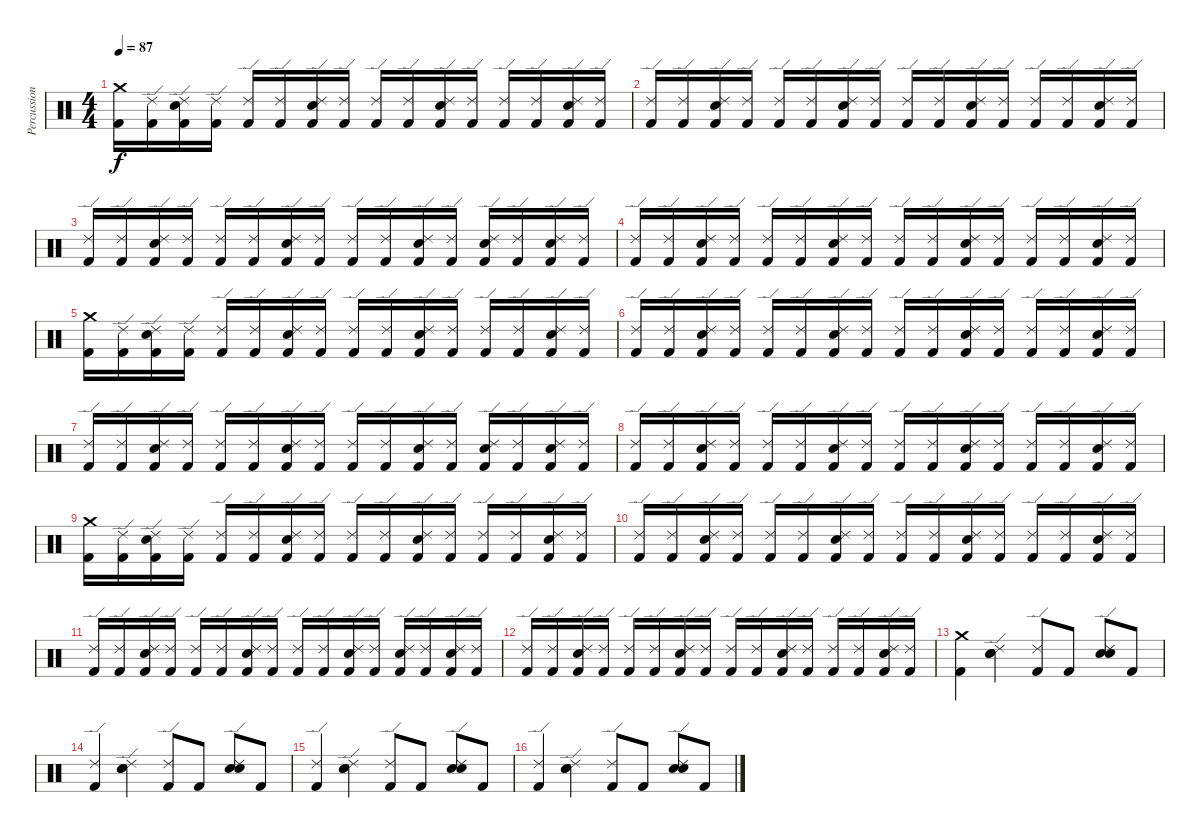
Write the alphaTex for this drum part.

\track ("Percussion" "Percussion") {instrument percussion}
\staff {score}
\articulation defaults
\ts (4 4)
\tempo 87
\clef neutral
\ks c
("Crash medium (hit)" "Kick (hit) 2").16{dy f} ("Ride (edge) 2" "Kick (hit) 2").16 ("Ride (edge) 2" "Snare (hit) 2" "Kick (hit) 2").16 ("Ride (edge) 2" "Kick (hit) 2").16 ("Ride (edge) 2" "Kick (hit) 2").16 ("Ride (edge) 2" "Kick (hit) 2").16 ("Ride (edge) 2" "Snare (hit) 2" "Kick (hit) 2").16 ("Ride (edge) 2" "Kick (hit) 2").16 ("Ride (edge) 2" "Kick (hit) 2").16 ("Ride (edge) 2" "Kick (hit) 2").16 ("Ride (edge) 2" "Snare (hit) 2" "Kick (hit) 2").16 ("Ride (edge) 2" "Kick (hit) 2").16 ("Ride (edge) 2" "Kick (hit) 2").16 ("Ride (edge) 2" "Kick (hit) 2").16 ("Ride (edge) 2" "Snare (hit) 2" "Kick (hit) 2").16 ("Ride (edge) 2" "Kick (hit) 2").16 |
("Ride (edge) 2" "Kick (hit) 2").16 ("Ride (edge) 2" "Kick (hit) 2").16 ("Ride (edge) 2" "Snare (hit) 2" "Kick (hit) 2").16 ("Ride (edge) 2" "Kick (hit) 2").16 ("Ride (edge) 2" "Kick (hit) 2").16 ("Ride (edge) 2" "Kick (hit) 2").16 ("Ride (edge) 2" "Snare (hit) 2" "Kick (hit) 2").16 ("Ride (edge) 2" "Kick (hit) 2").16 ("Ride (edge) 2" "Kick (hit) 2").16 ("Ride (edge) 2" "Kick (hit) 2").16 ("Ride (edge) 2" "Snare (hit) 2" "Kick (hit) 2").16 ("Ride (edge) 2" "Kick (hit) 2").16 ("Ride (edge) 2" "Kick (hit) 2").16 ("Ride (edge) 2" "Kick (hit) 2").16 ("Ride (edge) 2" "Snare (hit) 2" "Kick (hit) 2").16 ("Ride (edge) 2" "Kick (hit) 2").16 |
("Ride (edge) 2" "Kick (hit) 2").16 ("Ride (edge) 2" "Kick (hit) 2").16 ("Ride (edge) 2" "Snare (hit) 2" "Kick (hit) 2").16 ("Ride (edge) 2" "Kick (hit) 2").16 ("Ride (edge) 2" "Kick (hit) 2").16 ("Ride (edge) 2" "Kick (hit) 2").16 ("Ride (edge) 2" "Snare (hit) 2" "Kick (hit) 2").16 ("Ride (edge) 2" "Kick (hit) 2").16 ("Ride (edge) 2" "Kick (hit) 2").16 ("Ride (edge) 2" "Kick (hit) 2").16 ("Ride (edge) 2" "Snare (hit) 2" "Kick (hit) 2").16 ("Ride (edge) 2" "Kick (hit) 2").16 ("Ride (edge) 2" "Snare (hit) 2" "Kick (hit) 2").16 ("Ride (edge) 2" "Kick (hit) 2").16 ("Ride (edge) 2" "Snare (hit) 2" "Kick (hit) 2").16 ("Ride (edge) 2" "Kick (hit) 2").16 |
("Ride (edge) 2" "Kick (hit) 2").16 ("Ride (edge) 2" "Kick (hit) 2").16 ("Ride (edge) 2" "Snare (hit) 2" "Kick (hit) 2").16 ("Ride (edge) 2" "Kick (hit) 2").16 ("Ride (edge) 2" "Kick (hit) 2").16 ("Ride (edge) 2" "Kick (hit) 2").16 ("Ride (edge) 2" "Snare (hit) 2" "Kick (hit) 2").16 ("Ride (edge) 2" "Kick (hit) 2").16 ("Ride (edge) 2" "Kick (hit) 2").16 ("Ride (edge) 2" "Kick (hit) 2").16 ("Ride (edge) 2" "Snare (hit) 2" "Kick (hit) 2").16 ("Ride (edge) 2" "Kick (hit) 2").16 ("Ride (edge) 2" "Kick (hit) 2").16 ("Ride (edge) 2" "Kick (hit) 2").16 ("Ride (edge) 2" "Snare (hit) 2" "Kick (hit) 2").16 ("Ride (edge) 2" "Kick (hit) 2").16 |
("Crash medium (hit)" "Kick (hit) 2").16 ("Ride (edge) 2" "Kick (hit) 2").16 ("Ride (edge) 2" "Snare (hit) 2" "Kick (hit) 2").16 ("Ride (edge) 2" "Kick (hit) 2").16 ("Ride (edge) 2" "Kick (hit) 2").16 ("Ride (edge) 2" "Kick (hit) 2").16 ("Ride (edge) 2" "Snare (hit) 2" "Kick (hit) 2").16 ("Ride (edge) 2" "Kick (hit) 2").16 ("Ride (edge) 2" "Kick (hit) 2").16 ("Ride (edge) 2" "Kick (hit) 2").16 ("Ride (edge) 2" "Snare (hit) 2" "Kick (hit) 2").16 ("Ride (edge) 2" "Kick (hit) 2").16 ("Ride (edge) 2" "Kick (hit) 2").16 ("Ride (edge) 2" "Kick (hit) 2").16 ("Ride (edge) 2" "Snare (hit) 2" "Kick (hit) 2").16 ("Ride (edge) 2" "Kick (hit) 2").16 |
("Ride (edge) 2" "Kick (hit) 2").16 ("Ride (edge) 2" "Kick (hit) 2").16 ("Ride (edge) 2" "Snare (hit) 2" "Kick (hit) 2").16 ("Ride (edge) 2" "Kick (hit) 2").16 ("Ride (edge) 2" "Kick (hit) 2").16 ("Ride (edge) 2" "Kick (hit) 2").16 ("Ride (edge) 2" "Snare (hit) 2" "Kick (hit) 2").16 ("Ride (edge) 2" "Kick (hit) 2").16 ("Ride (edge) 2" "Kick (hit) 2").16 ("Ride (edge) 2" "Kick (hit) 2").16 ("Ride (edge) 2" "Snare (hit) 2" "Kick (hit) 2").16 ("Ride (edge) 2" "Kick (hit) 2").16 ("Ride (edge) 2" "Kick (hit) 2").16 ("Ride (edge) 2" "Kick (hit) 2").16 ("Ride (edge) 2" "Snare (hit) 2" "Kick (hit) 2").16 ("Ride (edge) 2" "Kick (hit) 2").16 |
("Ride (edge) 2" "Kick (hit) 2").16 ("Ride (edge) 2" "Kick (hit) 2").16 ("Ride (edge) 2" "Snare (hit) 2" "Kick (hit) 2").16 ("Ride (edge) 2" "Kick (hit) 2").16 ("Ride (edge) 2" "Kick (hit) 2").16 ("Ride (edge) 2" "Kick (hit) 2").16 ("Ride (edge) 2" "Snare (hit) 2" "Kick (hit) 2").16 ("Ride (edge) 2" "Kick (hit) 2").16 ("Ride (edge) 2" "Kick (hit) 2").16 ("Ride (edge) 2" "Kick (hit) 2").16 ("Ride (edge) 2" "Snare (hit) 2" "Kick (hit) 2").16 ("Ride (edge) 2" "Kick (hit) 2").16 ("Ride (edge) 2" "Snare (hit) 2" "Kick (hit) 2").16 ("Ride (edge) 2" "Kick (hit) 2").16 ("Ride (edge) 2" "Snare (hit) 2" "Kick (hit) 2").16 ("Ride (edge) 2" "Kick (hit) 2").16 |
("Ride (edge) 2" "Kick (hit) 2").16 ("Ride (edge) 2" "Kick (hit) 2").16 ("Ride (edge) 2" "Snare (hit) 2" "Kick (hit) 2").16 ("Ride (edge) 2" "Kick (hit) 2").16 ("Ride (edge) 2" "Kick (hit) 2").16 ("Ride (edge) 2" "Kick (hit) 2").16 ("Ride (edge) 2" "Snare (hit) 2" "Kick (hit) 2").16 ("Ride (edge) 2" "Kick (hit) 2").16 ("Ride (edge) 2" "Kick (hit) 2").16 ("Ride (edge) 2" "Kick (hit) 2").16 ("Ride (edge) 2" "Snare (hit) 2" "Kick (hit) 2").16 ("Ride (edge) 2" "Kick (hit) 2").16 ("Ride (edge) 2" "Kick (hit) 2").16 ("Ride (edge) 2" "Kick (hit) 2").16 ("Ride (edge) 2" "Snare (hit) 2" "Kick (hit) 2").16 ("Ride (edge) 2" "Kick (hit) 2").16 |
("Crash medium (hit)" "Kick (hit) 2").16 ("Ride (edge) 2" "Kick (hit) 2").16 ("Ride (edge) 2" "Snare (hit) 2" "Kick (hit) 2").16 ("Ride (edge) 2" "Kick (hit) 2").16 ("Ride (edge) 2" "Kick (hit) 2").16 ("Ride (edge) 2" "Kick (hit) 2").16 ("Ride (edge) 2" "Snare (hit) 2" "Kick (hit) 2").16 ("Ride (edge) 2" "Kick (hit) 2").16 ("Ride (edge) 2" "Kick (hit) 2").16 ("Ride (edge) 2" "Kick (hit) 2").16 ("Ride (edge) 2" "Snare (hit) 2" "Kick (hit) 2").16 ("Ride (edge) 2" "Kick (hit) 2").16 ("Ride (edge) 2" "Kick (hit) 2").16 ("Ride (edge) 2" "Kick (hit) 2").16 ("Ride (edge) 2" "Snare (hit) 2" "Kick (hit) 2").16 ("Ride (edge) 2" "Kick (hit) 2").16 |
("Ride (edge) 2" "Kick (hit) 2").16 ("Ride (edge) 2" "Kick (hit) 2").16 ("Ride (edge) 2" "Snare (hit) 2" "Kick (hit) 2").16 ("Ride (edge) 2" "Kick (hit) 2").16 ("Ride (edge) 2" "Kick (hit) 2").16 ("Ride (edge) 2" "Kick (hit) 2").16 ("Ride (edge) 2" "Snare (hit) 2" "Kick (hit) 2").16 ("Ride (edge) 2" "Kick (hit) 2").16 ("Ride (edge) 2" "Kick (hit) 2").16 ("Ride (edge) 2" "Kick (hit) 2").16 ("Ride (edge) 2" "Snare (hit) 2" "Kick (hit) 2").16 ("Ride (edge) 2" "Kick (hit) 2").16 ("Ride (edge) 2" "Kick (hit) 2").16 ("Ride (edge) 2" "Kick (hit) 2").16 ("Ride (edge) 2" "Snare (hit) 2" "Kick (hit) 2").16 ("Ride (edge) 2" "Kick (hit) 2").16 |
("Ride (edge) 2" "Kick (hit) 2").16 ("Ride (edge) 2" "Kick (hit) 2").16 ("Ride (edge) 2" "Snare (hit) 2" "Kick (hit) 2").16 ("Ride (edge) 2" "Kick (hit) 2").16 ("Ride (edge) 2" "Kick (hit) 2").16 ("Ride (edge) 2" "Kick (hit) 2").16 ("Ride (edge) 2" "Snare (hit) 2" "Kick (hit) 2").16 ("Ride (edge) 2" "Kick (hit) 2").16 ("Ride (edge) 2" "Kick (hit) 2").16 ("Ride (edge) 2" "Kick (hit) 2").16 ("Ride (edge) 2" "Snare (hit) 2" "Kick (hit) 2").16 ("Ride (edge) 2" "Kick (hit) 2").16 ("Ride (edge) 2" "Snare (hit) 2" "Kick (hit) 2").16 ("Ride (edge) 2" "Kick (hit) 2").16 ("Ride (edge) 2" "Snare (hit) 2" "Kick (hit) 2").16 ("Ride (edge) 2" "Kick (hit) 2").16 |
("Ride (edge) 2" "Kick (hit) 2").16 ("Ride (edge) 2" "Kick (hit) 2").16 ("Ride (edge) 2" "Snare (hit) 2" "Kick (hit) 2").16 ("Ride (edge) 2" "Kick (hit) 2").16 ("Ride (edge) 2" "Kick (hit) 2").16 ("Ride (edge) 2" "Kick (hit) 2").16 ("Ride (edge) 2" "Snare (hit) 2" "Kick (hit) 2").16 ("Ride (edge) 2" "Kick (hit) 2").16 ("Ride (edge) 2" "Kick (hit) 2").16 ("Ride (edge) 2" "Kick (hit) 2").16 ("Ride (edge) 2" "Snare (hit) 2" "Kick (hit) 2").16 ("Ride (edge) 2" "Kick (hit) 2").16 ("Ride (edge) 2" "Kick (hit) 2").16 ("Ride (edge) 2" "Kick (hit) 2").16 ("Ride (edge) 2" "Snare (hit) 2" "Kick (hit) 2").16 ("Ride (edge) 2" "Kick (hit) 2").16 |
("Crash medium (hit)" "Kick (hit) 2").4 ("Ride (edge) 2" "Hand Clap (hit)" "Snare (hit) 2").4 ("Ride (edge) 2" "Kick (hit) 2").8 "Kick (hit) 2".8 ("Ride (edge) 2" "Hand Clap (hit)" "Snare (hit) 2").8 "Kick (hit) 2".8 |
("Ride (edge) 2" "Kick (hit) 2").4 ("Ride (edge) 2" "Hand Clap (hit)" "Snare (hit) 2").4 ("Ride (edge) 2" "Kick (hit) 2").8 "Kick (hit) 2".8 ("Ride (edge) 2" "Hand Clap (hit)" "Snare (hit) 2").8 "Kick (hit) 2".8 |
("Ride (edge) 2" "Kick (hit) 2").4 ("Ride (edge) 2" "Hand Clap (hit)" "Snare (hit) 2").4 ("Ride (edge) 2" "Kick (hit) 2").8 "Kick (hit) 2".8 ("Ride (edge) 2" "Hand Clap (hit)" "Snare (hit) 2").8 "Kick (hit) 2".8 |
("Ride (edge) 2" "Kick (hit) 2").4 ("Ride (edge) 2" "Hand Clap (hit)" "Snare (hit) 2").4 ("Ride (edge) 2" "Kick (hit) 2").8 "Kick (hit) 2".8 ("Ride (edge) 2" "Hand Clap (hit)" "Snare (hit) 2").8 "Kick (hit) 2".8
